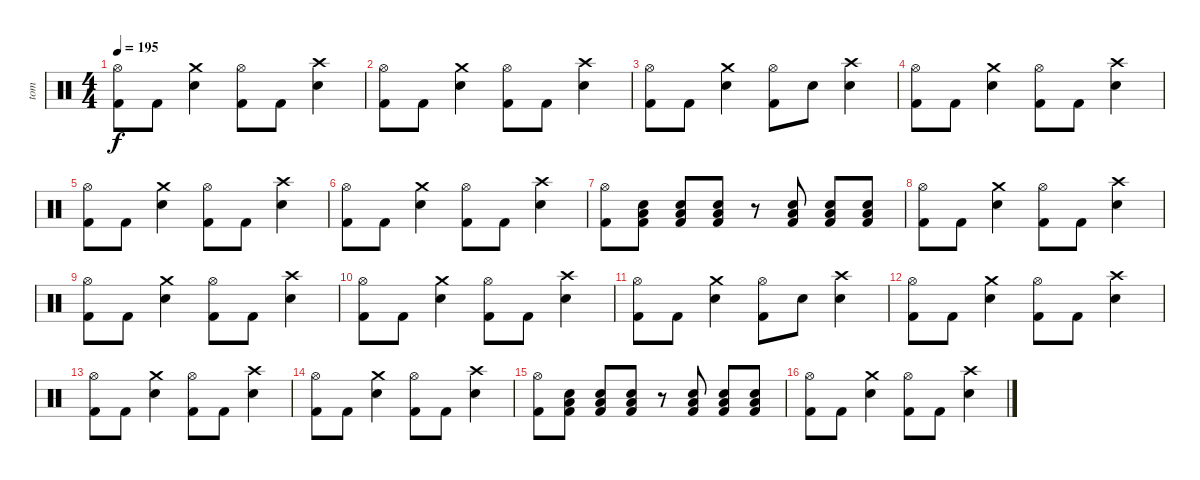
\track ("tom" "tom") {instrument percussion}
\staff {score}
\articulation defaults
\ts (4 4)
\tempo 195
\clef neutral
\ks c
("Hi-Hat (open)" "Kick (hit) 2").8{dy f} "Kick (hit) 2".8 ("Crash medium (hit)" "Electric Snare (hit)").4 ("Hi-Hat (open)" "Kick (hit) 2").8 "Kick (hit) 2".8 ("Crash high (hit)" "Electric Snare (hit)").4 |
("Hi-Hat (open)" "Kick (hit) 2").8 "Kick (hit) 2".8 ("Crash medium (hit)" "Electric Snare (hit)").4 ("Hi-Hat (open)" "Kick (hit) 2").8 "Kick (hit) 2".8 ("Crash high (hit)" "Electric Snare (hit)").4 |
("Hi-Hat (open)" "Kick (hit) 2").8 "Kick (hit) 2".8 ("Crash medium (hit)" "Electric Snare (hit)").4 ("Hi-Hat (open)" "Kick (hit) 2").8 "Electric Snare (hit)".8 ("Crash high (hit)" "Electric Snare (hit)").4 |
("Hi-Hat (open)" "Kick (hit) 2").8 "Kick (hit) 2".8 ("Crash medium (hit)" "Electric Snare (hit)").4 ("Hi-Hat (open)" "Kick (hit) 2").8 "Kick (hit) 2".8 ("Crash high (hit)" "Electric Snare (hit)").4 |
("Hi-Hat (open)" "Kick (hit) 2").8 "Kick (hit) 2".8 ("Crash medium (hit)" "Electric Snare (hit)").4 ("Hi-Hat (open)" "Kick (hit) 2").8 "Kick (hit) 2".8 ("Crash high (hit)" "Electric Snare (hit)").4 |
("Hi-Hat (open)" "Kick (hit) 2").8 "Kick (hit) 2".8 ("Crash medium (hit)" "Electric Snare (hit)").4 ("Hi-Hat (open)" "Kick (hit) 2").8 "Kick (hit) 2".8 ("Crash high (hit)" "Electric Snare (hit)").4 |
("Hi-Hat (open)" "Kick (hit) 2").8 ("Electric Snare (hit)" "Low Tom (hit)" "Kick (hit) 2").8 ("Electric Snare (hit)" "Low Tom (hit)" "Kick (hit) 2").8 ("Electric Snare (hit)" "Low Tom (hit)" "Kick (hit) 2").8 r.8 ("Electric Snare (hit)" "Low Tom (hit)" "Kick (hit) 2").8 ("Electric Snare (hit)" "Low Tom (hit)" "Kick (hit) 2").8 ("Electric Snare (hit)" "Low Tom (hit)" "Kick (hit) 2").8 |
("Hi-Hat (open)" "Kick (hit) 2").8 "Kick (hit) 2".8 ("Crash medium (hit)" "Electric Snare (hit)").4 ("Hi-Hat (open)" "Kick (hit) 2").8 "Kick (hit) 2".8 ("Crash high (hit)" "Electric Snare (hit)").4 |
("Hi-Hat (open)" "Kick (hit) 2").8 "Kick (hit) 2".8 ("Crash medium (hit)" "Electric Snare (hit)").4 ("Hi-Hat (open)" "Kick (hit) 2").8 "Kick (hit) 2".8 ("Crash high (hit)" "Electric Snare (hit)").4 |
("Hi-Hat (open)" "Kick (hit) 2").8 "Kick (hit) 2".8 ("Crash medium (hit)" "Electric Snare (hit)").4 ("Hi-Hat (open)" "Kick (hit) 2").8 "Kick (hit) 2".8 ("Crash high (hit)" "Electric Snare (hit)").4 |
("Hi-Hat (open)" "Kick (hit) 2").8 "Kick (hit) 2".8 ("Crash medium (hit)" "Electric Snare (hit)").4 ("Hi-Hat (open)" "Kick (hit) 2").8 "Electric Snare (hit)".8 ("Crash high (hit)" "Electric Snare (hit)").4 |
("Hi-Hat (open)" "Kick (hit) 2").8 "Kick (hit) 2".8 ("Crash medium (hit)" "Electric Snare (hit)").4 ("Hi-Hat (open)" "Kick (hit) 2").8 "Kick (hit) 2".8 ("Crash high (hit)" "Electric Snare (hit)").4 |
("Hi-Hat (open)" "Kick (hit) 2").8 "Kick (hit) 2".8 ("Crash medium (hit)" "Electric Snare (hit)").4 ("Hi-Hat (open)" "Kick (hit) 2").8 "Kick (hit) 2".8 ("Crash high (hit)" "Electric Snare (hit)").4 |
("Hi-Hat (open)" "Kick (hit) 2").8 "Kick (hit) 2".8 ("Crash medium (hit)" "Electric Snare (hit)").4 ("Hi-Hat (open)" "Kick (hit) 2").8 "Kick (hit) 2".8 ("Crash high (hit)" "Electric Snare (hit)").4 |
("Hi-Hat (open)" "Kick (hit) 2").8 ("Electric Snare (hit)" "Low Tom (hit)" "Kick (hit) 2").8 ("Electric Snare (hit)" "Low Tom (hit)" "Kick (hit) 2").8 ("Electric Snare (hit)" "Low Tom (hit)" "Kick (hit) 2").8 r.8 ("Electric Snare (hit)" "Low Tom (hit)" "Kick (hit) 2").8 ("Electric Snare (hit)" "Low Tom (hit)" "Kick (hit) 2").8 ("Electric Snare (hit)" "Low Tom (hit)" "Kick (hit) 2").8 |
("Hi-Hat (open)" "Kick (hit) 2").8 "Kick (hit) 2".8 ("Crash medium (hit)" "Electric Snare (hit)").4 ("Hi-Hat (open)" "Kick (hit) 2").8 "Kick (hit) 2".8 ("Crash high (hit)" "Electric Snare (hit)").4
